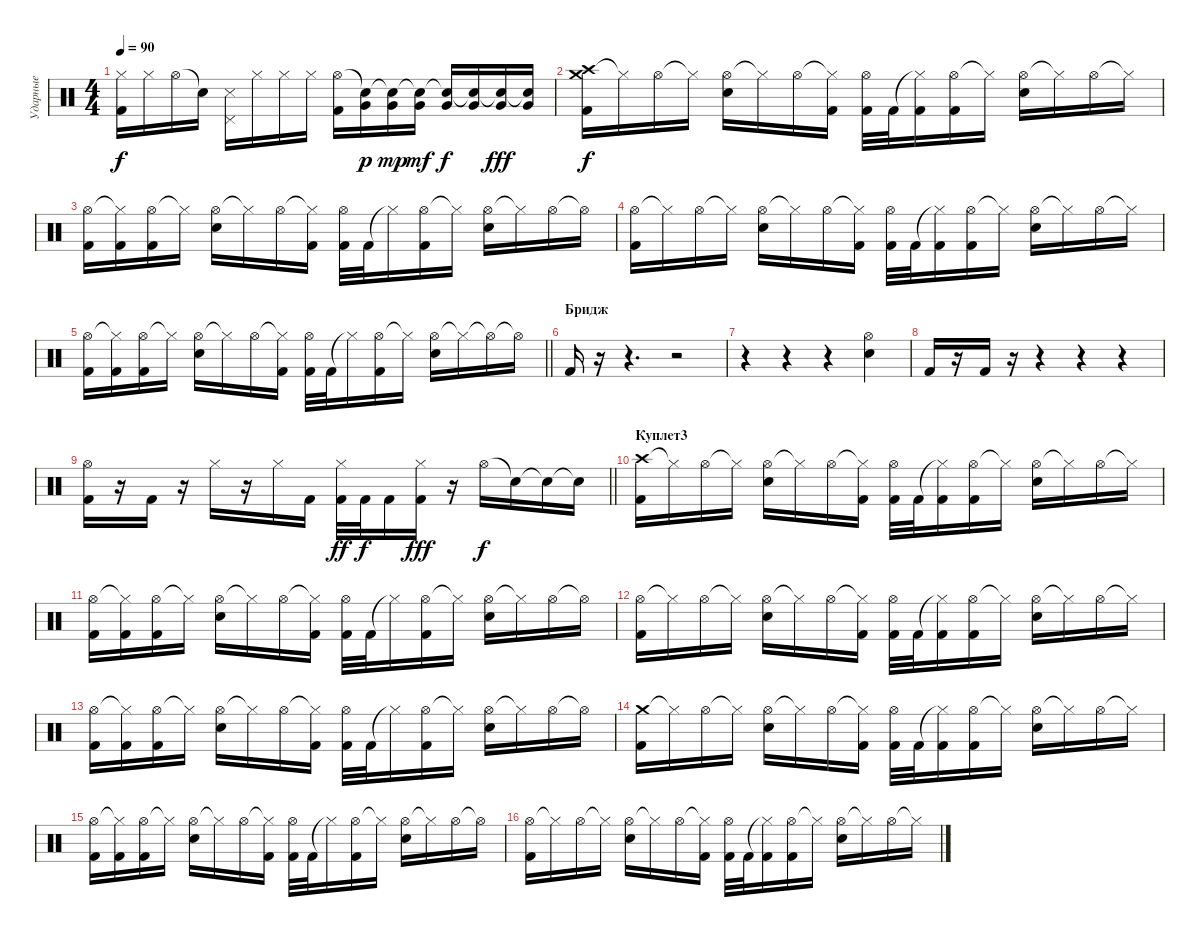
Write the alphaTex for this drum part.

\track ("Ударные" "Ударные") {instrument percussion}
\staff {score}
\articulation defaults
\ts (4 4)
\tempo 90
\clef neutral
\ks c
("Hi-Hat (closed)" "Kick (hit) 2").16{dy f} "Hi-Hat (closed)".16 "Hi-Hat (open)".16 "Snare (hit)"{t}.16 ("Pedal Hi-Hat (hit)" "Snare (side stick) 3").16 "Hi-Hat (closed)".16 "Hi-Hat (closed)".16 "Hi-Hat (closed)".16 ("Hi-Hat (open)" "Kick (hit) 2").16 ("Snare (hit)"{t} "Very Low Tom (hit)").16{dy p} ("Snare (hit)"{t} "Very Low Tom (hit)").16{dy mp} ("Snare (hit)"{t} "Very Low Tom (hit)").16{dy mf} ("Snare (hit)"{t} "Very Low Tom (hit)").16{dy f} ("Snare (hit)"{t} "Very Low Tom (hit)").16 ("Snare (hit)"{t} "Very Low Tom (hit)").16{dy fff} ("Snare (hit)"{t} "Very Low Tom (hit)").16 |
("Crash high (hit)" "Crash medium (hit)" "Kick (hit) 2").16{dy f} "Hi-Hat (closed)"{t}.16 "Hi-Hat (open)".16 "Hi-Hat (closed)"{t}.16 ("Hi-Hat (open)" "Electric Snare (hit)").16 "Hi-Hat (closed)"{t}.16 "Hi-Hat (open)".16 ("Hi-Hat (closed)"{t} "Kick (hit) 2").16 ("Hi-Hat (open)" "Kick (hit) 2").32 "Kick (hit) 2".32 ("Hi-Hat (closed)"{t} "Kick (hit) 2").16 ("Hi-Hat (open)" "Kick (hit) 2").16 "Hi-Hat (closed)"{t}.16 ("Hi-Hat (open)" "Electric Snare (hit)").16 "Hi-Hat (closed)"{t}.16 "Hi-Hat (open)".16 "Hi-Hat (closed)"{t}.16 |
("Hi-Hat (open)" "Kick (hit) 2").16 ("Hi-Hat (closed)"{t} "Kick (hit) 2").16 ("Hi-Hat (open)" "Kick (hit) 2").16 "Hi-Hat (closed)"{t}.16 ("Hi-Hat (open)" "Electric Snare (hit)").16 "Hi-Hat (closed)"{t}.16 "Hi-Hat (open)".16 ("Hi-Hat (closed)"{t} "Kick (hit) 2").16 ("Hi-Hat (open)" "Kick (hit) 2").32 "Kick (hit) 2".32 "Hi-Hat (closed)"{t}.16 ("Hi-Hat (open)" "Kick (hit) 2").16 "Hi-Hat (closed)"{t}.16 ("Hi-Hat (open)" "Electric Snare (hit)").16 "Hi-Hat (closed)"{t}.16 "Hi-Hat (open)".16 "Hi-Hat (open)"{t}.16 |
("Hi-Hat (open)" "Kick (hit) 2").16 "Hi-Hat (closed)"{t}.16 "Hi-Hat (open)".16 "Hi-Hat (closed)"{t}.16 ("Hi-Hat (open)" "Electric Snare (hit)").16 "Hi-Hat (closed)"{t}.16 "Hi-Hat (open)".16 ("Hi-Hat (closed)"{t} "Kick (hit) 2").16 ("Hi-Hat (open)" "Kick (hit) 2").32 "Kick (hit) 2".32 ("Hi-Hat (closed)"{t} "Kick (hit) 2").16 ("Hi-Hat (open)" "Kick (hit) 2").16 "Hi-Hat (closed)"{t}.16 ("Hi-Hat (open)" "Electric Snare (hit)").16 "Hi-Hat (closed)"{t}.16 "Hi-Hat (open)".16 "Hi-Hat (closed)"{t}.16 |
\barLineRight lightlight
("Hi-Hat (open)" "Kick (hit) 2").16 ("Hi-Hat (closed)"{t} "Kick (hit) 2").16 ("Hi-Hat (open)" "Kick (hit) 2").16 "Hi-Hat (closed)"{t}.16 ("Hi-Hat (open)" "Electric Snare (hit)").16 "Hi-Hat (closed)"{t}.16 "Hi-Hat (open)".16 ("Hi-Hat (closed)"{t} "Kick (hit) 2").16 ("Hi-Hat (open)" "Kick (hit) 2").32 "Kick (hit) 2".32 "Hi-Hat (closed)"{t}.16 ("Hi-Hat (open)" "Kick (hit) 2").16 "Hi-Hat (closed)"{t}.16 ("Hi-Hat (open)" "Electric Snare (hit)").16 "Hi-Hat (closed)"{t}.16 "Hi-Hat (open)"{t}.16 "Hi-Hat (open)"{t}.16 |
\section ("" "Бридж")
"Kick (hit) 2".16 r.16 r.4{d} r.2 |
r.4 r.4 r.4 ("Hi-Hat (open)" "Electric Snare (hit)").4 |
"Kick (hit) 2".16 r.16 "Kick (hit) 2".16 r.16 r.4 r.4 r.4 |
\barLineRight lightlight
("Hi-Hat (open)" "Kick (hit) 2").16 r.16 "Kick (hit) 2".16 r.16 "Hi-Hat (closed)".16 r.16 "Hi-Hat (closed)".16 "Kick (hit) 2".16 ("Hi-Hat (closed)" "Kick (hit) 2").32{dy ff} "Kick (hit) 2".32{dy f} "Kick (hit) 2".16 ("Hi-Hat (closed)" "Kick (hit) 2").16{dy fff} r.16 "Hi-Hat (open)".16{dy f} "Snare (hit)"{t}.16 "Snare (hit)"{t}.16 "Snare (hit)"{t}.16 |
\section ("" "Куплет3")
("Crash high (hit)" "Kick (hit) 2").16 "Hi-Hat (closed)"{t}.16 "Hi-Hat (open)".16 "Hi-Hat (closed)"{t}.16 ("Hi-Hat (open)" "Electric Snare (hit)").16 "Hi-Hat (closed)"{t}.16 "Hi-Hat (open)".16 ("Hi-Hat (closed)"{t} "Kick (hit) 2").16 ("Hi-Hat (open)" "Kick (hit) 2").32 "Kick (hit) 2".32 ("Hi-Hat (closed)"{t} "Kick (hit) 2").16 ("Hi-Hat (open)" "Kick (hit) 2").16 "Hi-Hat (closed)"{t}.16 ("Hi-Hat (open)" "Electric Snare (hit)").16 "Hi-Hat (closed)"{t}.16 "Hi-Hat (open)".16 "Hi-Hat (closed)"{t}.16 |
("Hi-Hat (open)" "Kick (hit) 2").16 ("Hi-Hat (closed)"{t} "Kick (hit) 2").16 ("Hi-Hat (open)" "Kick (hit) 2").16 "Hi-Hat (closed)"{t}.16 ("Hi-Hat (open)" "Electric Snare (hit)").16 "Hi-Hat (closed)"{t}.16 "Hi-Hat (open)".16 ("Hi-Hat (closed)"{t} "Kick (hit) 2").16 ("Hi-Hat (open)" "Kick (hit) 2").32 "Kick (hit) 2".32 "Hi-Hat (closed)"{t}.16 ("Hi-Hat (open)" "Kick (hit) 2").16 "Hi-Hat (closed)"{t}.16 ("Hi-Hat (open)" "Electric Snare (hit)").16 "Hi-Hat (closed)"{t}.16 "Hi-Hat (open)".16 "Hi-Hat (open)"{t}.16 |
("Hi-Hat (open)" "Kick (hit) 2").16 "Hi-Hat (closed)"{t}.16 "Hi-Hat (open)".16 "Hi-Hat (closed)"{t}.16 ("Hi-Hat (open)" "Electric Snare (hit)").16 "Hi-Hat (closed)"{t}.16 "Hi-Hat (open)".16 ("Hi-Hat (closed)"{t} "Kick (hit) 2").16 ("Hi-Hat (open)" "Kick (hit) 2").32 "Kick (hit) 2".32 ("Hi-Hat (closed)"{t} "Kick (hit) 2").16 ("Hi-Hat (open)" "Kick (hit) 2").16 "Hi-Hat (closed)"{t}.16 ("Hi-Hat (open)" "Electric Snare (hit)").16 "Hi-Hat (closed)"{t}.16 "Hi-Hat (open)".16 "Hi-Hat (closed)"{t}.16 |
("Hi-Hat (open)" "Kick (hit) 2").16 ("Hi-Hat (closed)"{t} "Kick (hit) 2").16 ("Hi-Hat (open)" "Kick (hit) 2").16 "Hi-Hat (closed)"{t}.16 ("Hi-Hat (open)" "Electric Snare (hit)").16 "Hi-Hat (closed)"{t}.16 "Hi-Hat (open)".16 ("Hi-Hat (closed)"{t} "Kick (hit) 2").16 ("Hi-Hat (open)" "Kick (hit) 2").32 "Kick (hit) 2".32 "Hi-Hat (closed)"{t}.16 ("Hi-Hat (open)" "Kick (hit) 2").16 "Hi-Hat (closed)"{t}.16 ("Hi-Hat (open)" "Electric Snare (hit)").16 "Hi-Hat (closed)"{t}.16 "Hi-Hat (open)".16 "Hi-Hat (open)"{t}.16 |
("Crash medium (hit)" "Kick (hit) 2").16 "Hi-Hat (closed)"{t}.16 "Hi-Hat (open)".16 "Hi-Hat (closed)"{t}.16 ("Hi-Hat (open)" "Electric Snare (hit)").16 "Hi-Hat (closed)"{t}.16 "Hi-Hat (open)".16 ("Hi-Hat (closed)"{t} "Kick (hit) 2").16 ("Hi-Hat (open)" "Kick (hit) 2").32 "Kick (hit) 2".32 ("Hi-Hat (closed)"{t} "Kick (hit) 2").16 ("Hi-Hat (open)" "Kick (hit) 2").16 "Hi-Hat (closed)"{t}.16 ("Hi-Hat (open)" "Electric Snare (hit)").16 "Hi-Hat (closed)"{t}.16 "Hi-Hat (open)".16 "Hi-Hat (closed)"{t}.16 |
("Hi-Hat (open)" "Kick (hit) 2").16 ("Hi-Hat (closed)"{t} "Kick (hit) 2").16 ("Hi-Hat (open)" "Kick (hit) 2").16 "Hi-Hat (closed)"{t}.16 ("Hi-Hat (open)" "Electric Snare (hit)").16 "Hi-Hat (closed)"{t}.16 "Hi-Hat (open)".16 ("Hi-Hat (closed)"{t} "Kick (hit) 2").16 ("Hi-Hat (open)" "Kick (hit) 2").32 "Kick (hit) 2".32 "Hi-Hat (closed)"{t}.16 ("Hi-Hat (open)" "Kick (hit) 2").16 "Hi-Hat (closed)"{t}.16 ("Hi-Hat (open)" "Electric Snare (hit)").16 "Hi-Hat (closed)"{t}.16 "Hi-Hat (open)".16 "Hi-Hat (open)"{t}.16 |
("Hi-Hat (open)" "Kick (hit) 2").16 "Hi-Hat (closed)"{t}.16 "Hi-Hat (open)".16 "Hi-Hat (closed)"{t}.16 ("Hi-Hat (open)" "Electric Snare (hit)").16 "Hi-Hat (closed)"{t}.16 "Hi-Hat (open)".16 ("Hi-Hat (closed)"{t} "Kick (hit) 2").16 ("Hi-Hat (open)" "Kick (hit) 2").32 "Kick (hit) 2".32 ("Hi-Hat (closed)"{t} "Kick (hit) 2").16 ("Hi-Hat (open)" "Kick (hit) 2").16 "Hi-Hat (closed)"{t}.16 ("Hi-Hat (open)" "Electric Snare (hit)").16 "Hi-Hat (closed)"{t}.16 "Hi-Hat (open)".16 "Hi-Hat (closed)"{t}.16
